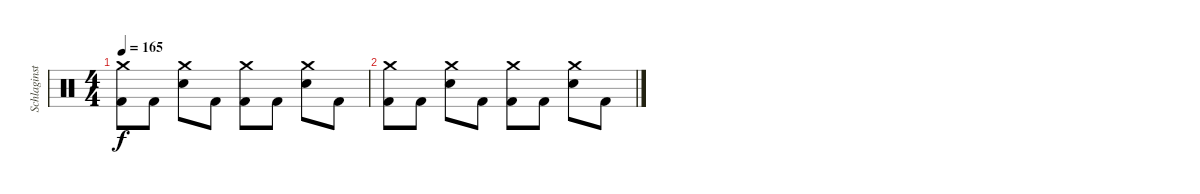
\track ("Schlaginstrumente - Auswahl" "Schlaginst") {instrument percussion}
\staff {score}
\articulation defaults
\ts (4 4)
\tempo 165
\clef neutral
\ks c
("Crash medium (hit)" "Kick (hit) 2").8{dy f} "Kick (hit) 2".8 ("Crash medium (hit)" "Snare (hit) 2").8 "Kick (hit) 2".8 ("Crash medium (hit)" "Kick (hit) 2").8 "Kick (hit) 2".8 ("Crash medium (hit)" "Snare (hit) 2").8 "Kick (hit) 2".8 |
("Crash medium (hit)" "Kick (hit) 2").8 "Kick (hit) 2".8 ("Crash medium (hit)" "Snare (hit) 2").8 "Kick (hit) 2".8 ("Crash medium (hit)" "Kick (hit) 2").8 "Kick (hit) 2".8 ("Crash medium (hit)" "Snare (hit) 2").8 "Kick (hit) 2".8
